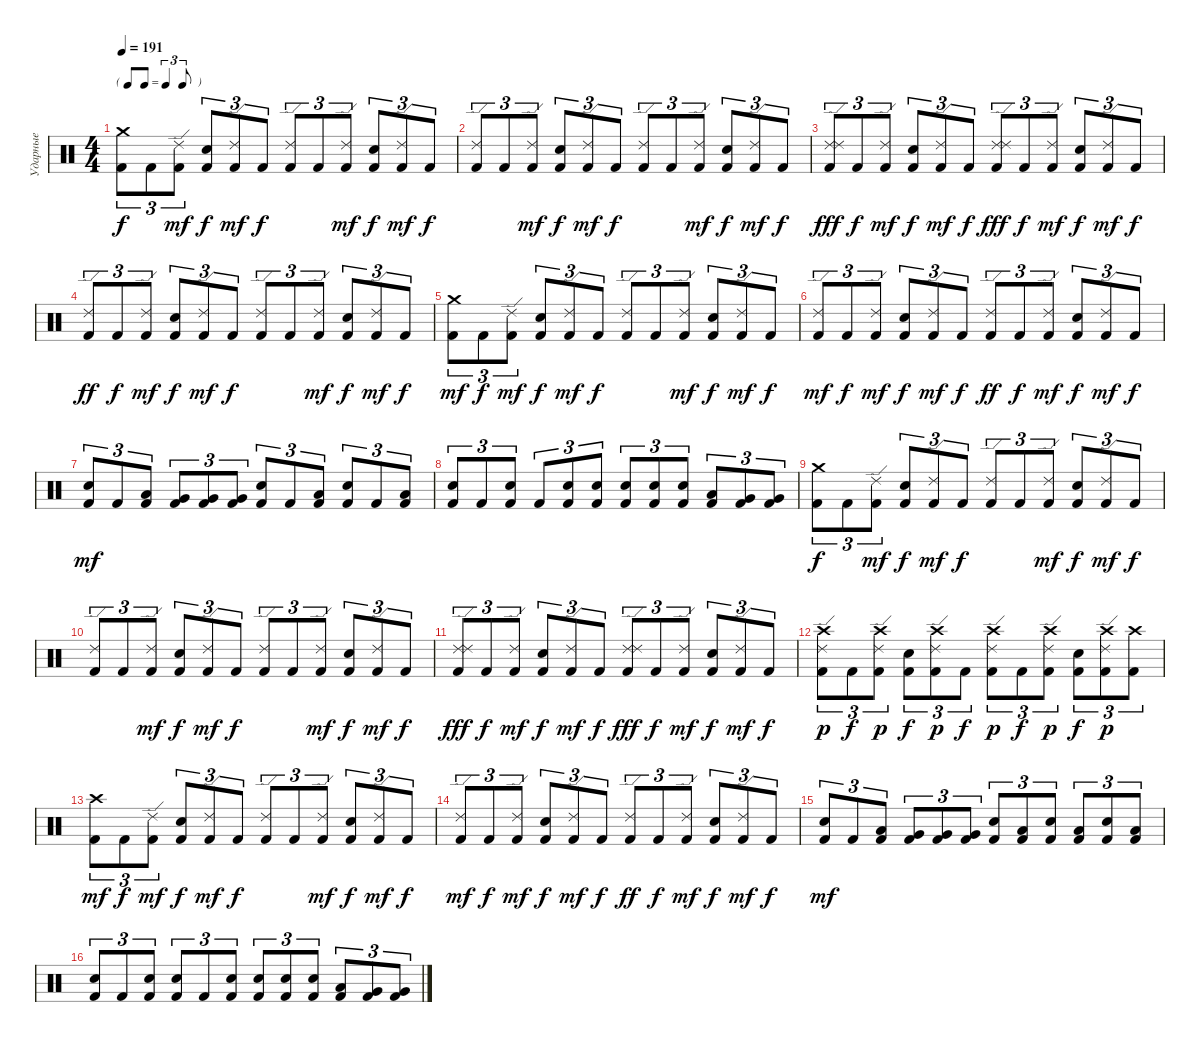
\track ("Ударные" "Ударные") {instrument percussion}
\staff {score}
\articulation defaults
\ts (4 4)
\tf triplet8th
\tempo 191
\clef neutral
\ks c
("Crash medium (hit)" "Kick (hit) 2").8{tu (3 2) dy f volume 11} "Kick (hit) 2".8{tu (3 2)} ("Ride (edge) 2" "Kick (hit) 2").8{tu (3 2) dy mf} ("Kick (hit) 2" "Electric Snare (hit)").8{tu (3 2) dy f} ("Ride (edge) 2" "Kick (hit) 2").8{tu (3 2) dy mf} "Kick (hit) 2".8{tu (3 2) dy f} ("Ride (edge) 2" "Kick (hit) 2").8{tu (3 2)} "Kick (hit) 2".8{tu (3 2)} ("Ride (edge) 2" "Kick (hit) 2").8{tu (3 2) dy mf} ("Kick (hit) 2" "Electric Snare (hit)").8{tu (3 2) dy f} ("Ride (edge) 2" "Kick (hit) 2").8{tu (3 2) dy mf} "Kick (hit) 2".8{tu (3 2) dy f} |
("Ride (edge) 2" "Kick (hit) 2").8{tu (3 2)} "Kick (hit) 2".8{tu (3 2)} ("Ride (edge) 2" "Kick (hit) 2").8{tu (3 2) dy mf} ("Kick (hit) 2" "Electric Snare (hit)").8{tu (3 2) dy f} ("Ride (edge) 2" "Kick (hit) 2").8{tu (3 2) dy mf} "Kick (hit) 2".8{tu (3 2) dy f} ("Ride (edge) 2" "Kick (hit) 2").8{tu (3 2)} "Kick (hit) 2".8{tu (3 2)} ("Ride (edge) 2" "Kick (hit) 2").8{tu (3 2) dy mf} ("Kick (hit) 2" "Electric Snare (hit)").8{tu (3 2) dy f} ("Ride (edge) 2" "Kick (hit) 2").8{tu (3 2) dy mf} "Kick (hit) 2".8{tu (3 2) dy f} |
("Ride (edge) 2" "Kick (hit) 2" "Ride (edge) 2").8{tu (3 2) dy fff volume 10} "Kick (hit) 2".8{tu (3 2) dy f} ("Ride (edge) 2" "Kick (hit) 2").8{tu (3 2) dy mf} ("Kick (hit) 2" "Electric Snare (hit)").8{tu (3 2) dy f} ("Ride (edge) 2" "Kick (hit) 2").8{tu (3 2) dy mf} "Kick (hit) 2".8{tu (3 2) dy f} ("Ride (edge) 2" "Kick (hit) 2" "Ride (edge) 2").8{tu (3 2) dy fff} "Kick (hit) 2".8{tu (3 2) dy f} ("Ride (edge) 2" "Kick (hit) 2").8{tu (3 2) dy mf} ("Kick (hit) 2" "Electric Snare (hit)").8{tu (3 2) dy f} ("Ride (edge) 2" "Kick (hit) 2").8{tu (3 2) dy mf} "Kick (hit) 2".8{tu (3 2) dy f} |
("Ride (edge) 2" "Kick (hit) 2").8{tu (3 2) dy ff} "Kick (hit) 2".8{tu (3 2) dy f} ("Ride (edge) 2" "Kick (hit) 2").8{tu (3 2) dy mf} ("Kick (hit) 2" "Electric Snare (hit)").8{tu (3 2) dy f} ("Ride (edge) 2" "Kick (hit) 2").8{tu (3 2) dy mf} "Kick (hit) 2".8{tu (3 2) dy f} ("Ride (edge) 2" "Kick (hit) 2").8{tu (3 2)} "Kick (hit) 2".8{tu (3 2)} ("Ride (edge) 2" "Kick (hit) 2").8{tu (3 2) dy mf} ("Kick (hit) 2" "Electric Snare (hit)").8{tu (3 2) dy f} ("Ride (edge) 2" "Kick (hit) 2").8{tu (3 2) dy mf} "Kick (hit) 2".8{tu (3 2) dy f} |
("Crash medium (hit)" "Kick (hit) 2").8{tu (3 2) dy mf volume 9} "Kick (hit) 2".8{tu (3 2) dy f} ("Ride (edge) 2" "Kick (hit) 2").8{tu (3 2) dy mf} ("Kick (hit) 2" "Electric Snare (hit)").8{tu (3 2) dy f} ("Ride (edge) 2" "Kick (hit) 2").8{tu (3 2) dy mf} "Kick (hit) 2".8{tu (3 2) dy f} ("Ride (edge) 2" "Kick (hit) 2").8{tu (3 2)} "Kick (hit) 2".8{tu (3 2)} ("Ride (edge) 2" "Kick (hit) 2").8{tu (3 2) dy mf} ("Kick (hit) 2" "Electric Snare (hit)").8{tu (3 2) dy f} ("Ride (edge) 2" "Kick (hit) 2").8{tu (3 2) dy mf} "Kick (hit) 2".8{tu (3 2) dy f} |
("Ride (edge) 2" "Kick (hit) 2").8{tu (3 2) dy mf} "Kick (hit) 2".8{tu (3 2) dy f} ("Ride (edge) 2" "Kick (hit) 2").8{tu (3 2) dy mf} ("Kick (hit) 2" "Electric Snare (hit)").8{tu (3 2) dy f} ("Ride (edge) 2" "Kick (hit) 2").8{tu (3 2) dy mf} "Kick (hit) 2".8{tu (3 2) dy f} ("Ride (edge) 2" "Kick (hit) 2").8{tu (3 2) dy ff} "Kick (hit) 2".8{tu (3 2) dy f} ("Ride (edge) 2" "Kick (hit) 2").8{tu (3 2) dy mf} ("Kick (hit) 2" "Electric Snare (hit)").8{tu (3 2) dy f} ("Ride (edge) 2" "Kick (hit) 2").8{tu (3 2) dy mf} "Kick (hit) 2".8{tu (3 2) dy f} |
("Snare (hit) 2" "Kick (hit) 2").8{tu (3 2) dy mf} "Kick (hit) 2".8{tu (3 2)} ("Low Tom (hit)" "Kick (hit) 2").8{tu (3 2)} ("Very Low Tom (hit)" "Kick (hit) 2").8{tu (3 2)} ("Very Low Tom (hit)" "Kick (hit) 2").8{tu (3 2)} ("Very Low Tom (hit)" "Kick (hit) 2").8{tu (3 2)} ("Snare (hit) 2" "Kick (hit) 2").8{tu (3 2)} "Kick (hit) 2".8{tu (3 2)} ("Low Tom (hit)" "Kick (hit) 2").8{tu (3 2)} ("Snare (hit) 2" "Kick (hit) 2").8{tu (3 2)} "Kick (hit) 2".8{tu (3 2)} ("Low Tom (hit)" "Kick (hit) 2").8{tu (3 2)} |
("Snare (hit) 2" "Kick (hit) 2").8{tu (3 2)} "Kick (hit) 2".8{tu (3 2)} ("Snare (hit) 2" "Kick (hit) 2").8{tu (3 2)} "Kick (hit) 2".8{tu (3 2)} ("Snare (hit) 2" "Kick (hit) 2").8{tu (3 2)} ("Snare (hit) 2" "Kick (hit) 2").8{tu (3 2)} ("Snare (hit) 2" "Kick (hit) 2").8{tu (3 2)} ("Snare (hit) 2" "Kick (hit) 2").8{tu (3 2)} ("Snare (hit) 2" "Kick (hit) 2").8{tu (3 2)} ("Low Tom (hit)" "Kick (hit) 2").8{tu (3 2)} ("Very Low Tom (hit)" "Kick (hit) 2").8{tu (3 2)} ("Very Low Tom (hit)" "Kick (hit) 2").8{tu (3 2)} |
("Crash medium (hit)" "Kick (hit) 2").8{tu (3 2) dy f volume 8} "Kick (hit) 2".8{tu (3 2)} ("Ride (edge) 2" "Kick (hit) 2").8{tu (3 2) dy mf} ("Kick (hit) 2" "Electric Snare (hit)").8{tu (3 2) dy f} ("Ride (edge) 2" "Kick (hit) 2").8{tu (3 2) dy mf} "Kick (hit) 2".8{tu (3 2) dy f} ("Ride (edge) 2" "Kick (hit) 2").8{tu (3 2)} "Kick (hit) 2".8{tu (3 2)} ("Ride (edge) 2" "Kick (hit) 2").8{tu (3 2) dy mf} ("Kick (hit) 2" "Electric Snare (hit)").8{tu (3 2) dy f} ("Ride (edge) 2" "Kick (hit) 2").8{tu (3 2) dy mf} "Kick (hit) 2".8{tu (3 2) dy f} |
("Ride (edge) 2" "Kick (hit) 2").8{tu (3 2)} "Kick (hit) 2".8{tu (3 2)} ("Ride (edge) 2" "Kick (hit) 2").8{tu (3 2) dy mf} ("Kick (hit) 2" "Electric Snare (hit)").8{tu (3 2) dy f} ("Ride (edge) 2" "Kick (hit) 2").8{tu (3 2) dy mf} "Kick (hit) 2".8{tu (3 2) dy f} ("Ride (edge) 2" "Kick (hit) 2").8{tu (3 2)} "Kick (hit) 2".8{tu (3 2)} ("Ride (edge) 2" "Kick (hit) 2").8{tu (3 2) dy mf} ("Kick (hit) 2" "Electric Snare (hit)").8{tu (3 2) dy f} ("Ride (edge) 2" "Kick (hit) 2").8{tu (3 2) dy mf} "Kick (hit) 2".8{tu (3 2) dy f} |
("Ride (edge) 2" "Kick (hit) 2" "Ride (edge) 2").8{tu (3 2) dy fff} "Kick (hit) 2".8{tu (3 2) dy f} ("Ride (edge) 2" "Kick (hit) 2").8{tu (3 2) dy mf} ("Kick (hit) 2" "Electric Snare (hit)").8{tu (3 2) dy f} ("Ride (edge) 2" "Kick (hit) 2").8{tu (3 2) dy mf} "Kick (hit) 2".8{tu (3 2) dy f} ("Ride (edge) 2" "Kick (hit) 2" "Ride (edge) 2").8{tu (3 2) dy fff} "Kick (hit) 2".8{tu (3 2) dy f} ("Ride (edge) 2" "Kick (hit) 2").8{tu (3 2) dy mf} ("Kick (hit) 2" "Electric Snare (hit)").8{tu (3 2) dy f} ("Ride (edge) 2" "Kick (hit) 2").8{tu (3 2) dy mf} "Kick (hit) 2".8{tu (3 2) dy f} |
("Ride (edge) 2" "Kick (hit) 2" "Crash high (hit)").8{tu (3 2) dy p volume 7} "Kick (hit) 2".8{tu (3 2) dy f} ("Ride (edge) 2" "Kick (hit) 2" "Crash high (hit)").8{tu (3 2) dy p} ("Kick (hit) 2" "Electric Snare (hit)").8{tu (3 2) dy f} ("Ride (edge) 2" "Kick (hit) 2" "Crash high (hit)").8{tu (3 2) dy p} "Kick (hit) 2".8{tu (3 2) dy f} ("Ride (edge) 2" "Kick (hit) 2" "Crash high (hit)").8{tu (3 2) dy p} "Kick (hit) 2".8{tu (3 2) dy f} ("Ride (edge) 2" "Kick (hit) 2" "Crash high (hit)").8{tu (3 2) dy p} ("Kick (hit) 2" "Electric Snare (hit)").8{tu (3 2) dy f} ("Ride (edge) 2" "Kick (hit) 2" "Crash high (hit)").8{tu (3 2) dy p} ("Kick (hit) 2" "Crash high (hit)").8{tu (3 2)} |
("Crash high (hit)" "Kick (hit) 2").8{tu (3 2) dy mf} "Kick (hit) 2".8{tu (3 2) dy f} ("Ride (edge) 2" "Kick (hit) 2").8{tu (3 2) dy mf} ("Kick (hit) 2" "Electric Snare (hit)").8{tu (3 2) dy f} ("Ride (edge) 2" "Kick (hit) 2").8{tu (3 2) dy mf} "Kick (hit) 2".8{tu (3 2) dy f} ("Ride (edge) 2" "Kick (hit) 2").8{tu (3 2)} "Kick (hit) 2".8{tu (3 2)} ("Ride (edge) 2" "Kick (hit) 2").8{tu (3 2) dy mf} ("Kick (hit) 2" "Electric Snare (hit)").8{tu (3 2) dy f} ("Ride (edge) 2" "Kick (hit) 2").8{tu (3 2) dy mf} "Kick (hit) 2".8{tu (3 2) dy f} |
("Ride (edge) 2" "Kick (hit) 2").8{tu (3 2) dy mf volume 0} "Kick (hit) 2".8{tu (3 2) dy f} ("Ride (edge) 2" "Kick (hit) 2").8{tu (3 2) dy mf} ("Kick (hit) 2" "Electric Snare (hit)").8{tu (3 2) dy f} ("Ride (edge) 2" "Kick (hit) 2").8{tu (3 2) dy mf} "Kick (hit) 2".8{tu (3 2) dy f} ("Ride (edge) 2" "Kick (hit) 2").8{tu (3 2) dy ff} "Kick (hit) 2".8{tu (3 2) dy f} ("Ride (edge) 2" "Kick (hit) 2").8{tu (3 2) dy mf} ("Kick (hit) 2" "Electric Snare (hit)").8{tu (3 2) dy f} ("Ride (edge) 2" "Kick (hit) 2").8{tu (3 2) dy mf} "Kick (hit) 2".8{tu (3 2) dy f} |
("Snare (hit) 2" "Kick (hit) 2").8{tu (3 2) dy mf} "Kick (hit) 2".8{tu (3 2)} ("Low Tom (hit)" "Kick (hit) 2").8{tu (3 2)} ("Very Low Tom (hit)" "Kick (hit) 2").8{tu (3 2)} ("Very Low Tom (hit)" "Kick (hit) 2").8{tu (3 2)} ("Very Low Tom (hit)" "Kick (hit) 2").8{tu (3 2)} ("Snare (hit) 2" "Kick (hit) 2").8{tu (3 2)} ("Low Tom (hit)" "Kick (hit) 2").8{tu (3 2)} ("Snare (hit) 2" "Kick (hit) 2").8{tu (3 2)} ("Low Tom (hit)" "Kick (hit) 2").8{tu (3 2)} ("Snare (hit) 2" "Kick (hit) 2").8{tu (3 2)} ("Low Tom (hit)" "Kick (hit) 2").8{tu (3 2)} |
("Snare (hit) 2" "Kick (hit) 2").8{tu (3 2)} "Kick (hit) 2".8{tu (3 2)} ("Snare (hit) 2" "Kick (hit) 2").8{tu (3 2)} ("Snare (hit) 2" "Kick (hit) 2").8{tu (3 2)} "Kick (hit) 2".8{tu (3 2)} ("Snare (hit) 2" "Kick (hit) 2").8{tu (3 2)} ("Snare (hit) 2" "Kick (hit) 2").8{tu (3 2)} ("Snare (hit) 2" "Kick (hit) 2").8{tu (3 2)} ("Snare (hit) 2" "Kick (hit) 2").8{tu (3 2)} ("Low Tom (hit)" "Kick (hit) 2").8{tu (3 2)} ("Very Low Tom (hit)" "Kick (hit) 2").8{tu (3 2)} ("Very Low Tom (hit)" "Kick (hit) 2").8{tu (3 2)}
